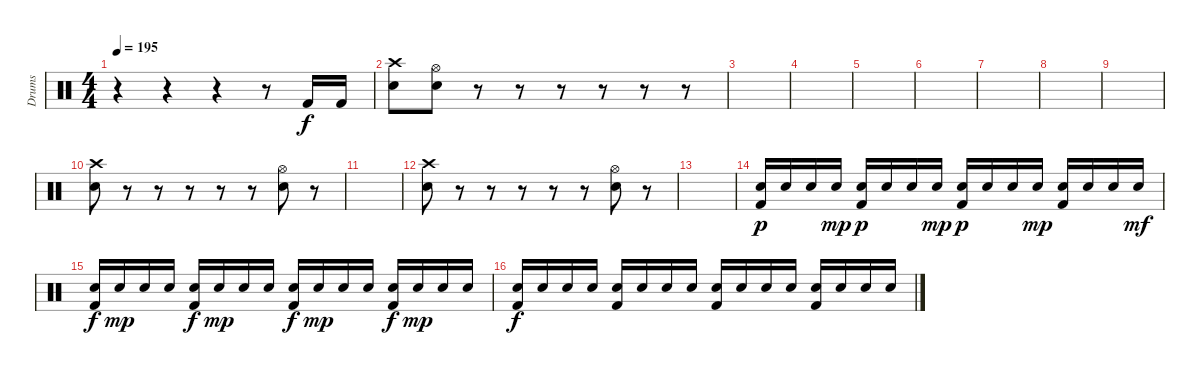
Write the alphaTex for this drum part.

\track ("Drums" "Drums") {instrument percussion}
\staff {score}
\articulation defaults
\ts (4 4)
\tempo 195
\clef neutral
\ks c
r.4{dy f} r.4 r.4 r.8 "Kick (hit) 2".16 "Kick (hit) 2".16 |
("Crash high (hit)" "Electric Snare (hit)").8 ("Hi-Hat (open)" "Electric Snare (hit)").8 r.8 r.8 r.8 r.8 r.8 r.8 |
|
|
|
|
|
|
|
("Crash high (hit)" "Electric Snare (hit)").8 r.8 r.8 r.8 r.8 r.8 ("Hi-Hat (open)" "Electric Snare (hit)").8 r.8 |
|
("Crash high (hit)" "Electric Snare (hit)").8 r.8 r.8 r.8 r.8 r.8 ("Hi-Hat (open)" "Electric Snare (hit)").8 r.8 |
|
("Electric Snare (hit)" "Kick (hit) 2").16{dy p} "Electric Snare (hit)".16 "Electric Snare (hit)".16 "Electric Snare (hit)".16{dy mp} ("Electric Snare (hit)" "Kick (hit) 2").16{dy p} "Electric Snare (hit)".16 "Electric Snare (hit)".16 "Electric Snare (hit)".16{dy mp} ("Electric Snare (hit)" "Kick (hit) 2").16{dy p} "Electric Snare (hit)".16 "Electric Snare (hit)".16 "Electric Snare (hit)".16{dy mp} ("Electric Snare (hit)" "Kick (hit) 2").16 "Electric Snare (hit)".16 "Electric Snare (hit)".16 "Electric Snare (hit)".16{dy mf} |
("Electric Snare (hit)" "Kick (hit) 2").16{dy f} "Electric Snare (hit)".16{dy mp} "Electric Snare (hit)".16 "Electric Snare (hit)".16 ("Electric Snare (hit)" "Kick (hit) 2").16{dy f} "Electric Snare (hit)".16{dy mp} "Electric Snare (hit)".16 "Electric Snare (hit)".16 ("Electric Snare (hit)" "Kick (hit) 2").16{dy f} "Electric Snare (hit)".16{dy mp} "Electric Snare (hit)".16 "Electric Snare (hit)".16 ("Electric Snare (hit)" "Kick (hit) 2").16{dy f} "Electric Snare (hit)".16{dy mp} "Electric Snare (hit)".16 "Electric Snare (hit)".16 |
("Electric Snare (hit)" "Kick (hit) 2").16{dy f} "Electric Snare (hit)".16 "Electric Snare (hit)".16 "Electric Snare (hit)".16 ("Electric Snare (hit)" "Kick (hit) 2").16 "Electric Snare (hit)".16 "Electric Snare (hit)".16 "Electric Snare (hit)".16 ("Electric Snare (hit)" "Kick (hit) 2").16 "Electric Snare (hit)".16 "Electric Snare (hit)".16 "Electric Snare (hit)".16 ("Electric Snare (hit)" "Kick (hit) 2").16 "Electric Snare (hit)".16 "Electric Snare (hit)".16 "Electric Snare (hit)".16
